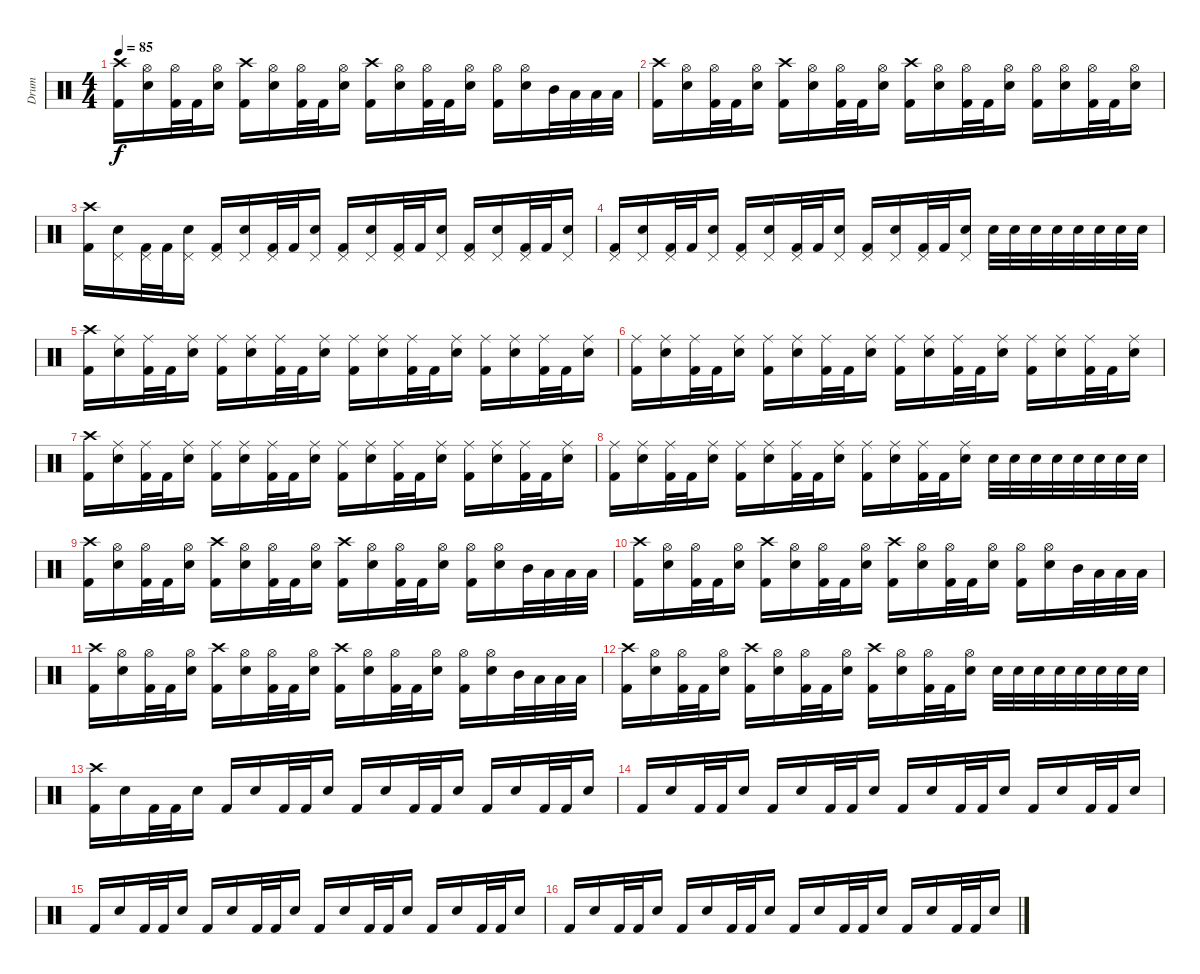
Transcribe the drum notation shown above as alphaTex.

\track ("Drum" "Drum") {instrument percussion}
\staff {score}
\articulation defaults
\ts (4 4)
\tempo 85
\clef neutral
\ks c
("Crash high (hit)" "Kick (hit) 2").16{dy f} ("Hi-Hat (open)" "Electric Snare (hit)").16 ("Hi-Hat (open)" "Kick (hit) 2").32 "Kick (hit) 2".32 ("Hi-Hat (open)" "Electric Snare (hit)").16 ("Crash high (hit)" "Kick (hit) 2").16 ("Hi-Hat (open)" "Electric Snare (hit)").16 ("Hi-Hat (open)" "Kick (hit) 2").32 "Kick (hit) 2".32 ("Hi-Hat (open)" "Electric Snare (hit)").16 ("Crash high (hit)" "Kick (hit) 2").16 ("Hi-Hat (open)" "Electric Snare (hit)").16 ("Hi-Hat (open)" "Kick (hit) 2").32 "Kick (hit) 2".32 ("Hi-Hat (open)" "Electric Snare (hit)").16 ("Hi-Hat (open)" "Kick (hit) 2").16 ("Hi-Hat (open)" "Electric Snare (hit)").16 "Mid Tom (hit)".32 "Low Tom (hit)".32 "Low Tom (hit)".32 "Low Floor Tom (hit)".32 |
("Crash high (hit)" "Kick (hit) 2").16 ("Hi-Hat (open)" "Electric Snare (hit)").16 ("Hi-Hat (open)" "Kick (hit) 2").32 "Kick (hit) 2".32 ("Hi-Hat (open)" "Electric Snare (hit)").16 ("Crash high (hit)" "Kick (hit) 2").16 ("Hi-Hat (open)" "Electric Snare (hit)").16 ("Hi-Hat (open)" "Kick (hit) 2").32 "Kick (hit) 2".32 ("Hi-Hat (open)" "Electric Snare (hit)").16 ("Crash high (hit)" "Kick (hit) 2").16 ("Hi-Hat (open)" "Electric Snare (hit)").16 ("Hi-Hat (open)" "Kick (hit) 2").32 "Kick (hit) 2".32 ("Hi-Hat (open)" "Electric Snare (hit)").16 ("Hi-Hat (open)" "Kick (hit) 2").16 ("Hi-Hat (open)" "Electric Snare (hit)").16 ("Hi-Hat (open)" "Kick (hit) 2").32 "Kick (hit) 2".32 ("Hi-Hat (open)" "Electric Snare (hit)").16 |
("Crash high (hit)" "Kick (hit) 2").16 ("Pedal Hi-Hat (hit)" "Electric Snare (hit)").16 ("Pedal Hi-Hat (hit)" "Kick (hit) 2").32 "Kick (hit) 2".32 ("Pedal Hi-Hat (hit)" "Electric Snare (hit)").16 ("Pedal Hi-Hat (hit)" "Kick (hit) 2").16 ("Pedal Hi-Hat (hit)" "Electric Snare (hit)").16 ("Pedal Hi-Hat (hit)" "Kick (hit) 2").32 "Kick (hit) 2".32 ("Pedal Hi-Hat (hit)" "Electric Snare (hit)").16 ("Pedal Hi-Hat (hit)" "Kick (hit) 2").16 ("Pedal Hi-Hat (hit)" "Electric Snare (hit)").16 ("Pedal Hi-Hat (hit)" "Kick (hit) 2").32 "Kick (hit) 2".32 ("Pedal Hi-Hat (hit)" "Electric Snare (hit)").16 ("Pedal Hi-Hat (hit)" "Kick (hit) 2").16 ("Pedal Hi-Hat (hit)" "Electric Snare (hit)").16 ("Pedal Hi-Hat (hit)" "Kick (hit) 2").32 "Kick (hit) 2".32 ("Pedal Hi-Hat (hit)" "Electric Snare (hit)").16 |
("Pedal Hi-Hat (hit)" "Kick (hit) 2").16 ("Pedal Hi-Hat (hit)" "Electric Snare (hit)").16 ("Pedal Hi-Hat (hit)" "Kick (hit) 2").32 "Kick (hit) 2".32 ("Pedal Hi-Hat (hit)" "Electric Snare (hit)").16 ("Pedal Hi-Hat (hit)" "Kick (hit) 2").16 ("Pedal Hi-Hat (hit)" "Electric Snare (hit)").16 ("Pedal Hi-Hat (hit)" "Kick (hit) 2").32 "Kick (hit) 2".32 ("Pedal Hi-Hat (hit)" "Electric Snare (hit)").16 ("Pedal Hi-Hat (hit)" "Kick (hit) 2").16 ("Pedal Hi-Hat (hit)" "Electric Snare (hit)").16 ("Pedal Hi-Hat (hit)" "Kick (hit) 2").32 "Kick (hit) 2".32 ("Pedal Hi-Hat (hit)" "Electric Snare (hit)").16 "Electric Snare (hit)".32 "Electric Snare (hit)".32 "Electric Snare (hit)".32 "Electric Snare (hit)".32 "Electric Snare (hit)".32 "Electric Snare (hit)".32 "Electric Snare (hit)".32 "Electric Snare (hit)".32 |
("Crash high (hit)" "Kick (hit) 2").16 ("Ride (middle)" "Electric Snare (hit)").16 ("Ride (middle)" "Kick (hit) 2").32 "Kick (hit) 2".32 ("Ride (middle)" "Electric Snare (hit)").16 ("Ride (middle)" "Kick (hit) 2").16 ("Ride (middle)" "Electric Snare (hit)").16 ("Ride (middle)" "Kick (hit) 2").32 "Kick (hit) 2".32 ("Ride (middle)" "Electric Snare (hit)").16 ("Ride (middle)" "Kick (hit) 2").16 ("Ride (middle)" "Electric Snare (hit)").16 ("Ride (middle)" "Kick (hit) 2").32 "Kick (hit) 2".32 ("Ride (middle)" "Electric Snare (hit)").16 ("Ride (middle)" "Kick (hit) 2").16 ("Ride (middle)" "Electric Snare (hit)").16 ("Ride (middle)" "Kick (hit) 2").32 "Kick (hit) 2".32 ("Ride (middle)" "Electric Snare (hit)").16 |
("Ride (middle)" "Kick (hit) 2").16 ("Ride (middle)" "Electric Snare (hit)").16 ("Ride (middle)" "Kick (hit) 2").32 "Kick (hit) 2".32 ("Ride (middle)" "Electric Snare (hit)").16 ("Ride (middle)" "Kick (hit) 2").16 ("Ride (middle)" "Electric Snare (hit)").16 ("Ride (middle)" "Kick (hit) 2").32 "Kick (hit) 2".32 ("Ride (middle)" "Electric Snare (hit)").16 ("Ride (middle)" "Kick (hit) 2").16 ("Ride (middle)" "Electric Snare (hit)").16 ("Ride (middle)" "Kick (hit) 2").32 "Kick (hit) 2".32 ("Ride (middle)" "Electric Snare (hit)").16 ("Ride (middle)" "Kick (hit) 2").16 ("Ride (middle)" "Electric Snare (hit)").16 ("Ride (middle)" "Kick (hit) 2").32 "Kick (hit) 2".32 ("Ride (middle)" "Electric Snare (hit)").16 |
("Crash high (hit)" "Kick (hit) 2").16 ("Ride (middle)" "Electric Snare (hit)").16 ("Ride (middle)" "Kick (hit) 2").32 "Kick (hit) 2".32 ("Ride (middle)" "Electric Snare (hit)").16 ("Ride (middle)" "Kick (hit) 2").16 ("Ride (middle)" "Electric Snare (hit)").16 ("Ride (middle)" "Kick (hit) 2").32 "Kick (hit) 2".32 ("Ride (middle)" "Electric Snare (hit)").16 ("Ride (middle)" "Kick (hit) 2").16 ("Ride (middle)" "Electric Snare (hit)").16 ("Ride (middle)" "Kick (hit) 2").32 "Kick (hit) 2".32 ("Ride (middle)" "Electric Snare (hit)").16 ("Ride (middle)" "Kick (hit) 2").16 ("Ride (middle)" "Electric Snare (hit)").16 ("Ride (middle)" "Kick (hit) 2").32 "Kick (hit) 2".32 ("Ride (middle)" "Electric Snare (hit)").16 |
("Ride (middle)" "Kick (hit) 2").16 ("Ride (middle)" "Electric Snare (hit)").16 ("Ride (middle)" "Kick (hit) 2").32 "Kick (hit) 2".32 ("Ride (middle)" "Electric Snare (hit)").16 ("Ride (middle)" "Kick (hit) 2").16 ("Ride (middle)" "Electric Snare (hit)").16 ("Ride (middle)" "Kick (hit) 2").32 "Kick (hit) 2".32 ("Ride (middle)" "Electric Snare (hit)").16 ("Ride (middle)" "Kick (hit) 2").16 ("Ride (middle)" "Electric Snare (hit)").16 ("Ride (middle)" "Kick (hit) 2").32 "Kick (hit) 2".32 ("Ride (middle)" "Electric Snare (hit)").16 "Electric Snare (hit)".32 "Electric Snare (hit)".32 "Electric Snare (hit)".32 "Electric Snare (hit)".32 "Electric Snare (hit)".32 "Electric Snare (hit)".32 "Electric Snare (hit)".32 "Electric Snare (hit)".32 |
("Crash high (hit)" "Kick (hit) 2").16 ("Hi-Hat (open)" "Electric Snare (hit)").16 ("Hi-Hat (open)" "Kick (hit) 2").32 "Kick (hit) 2".32 ("Hi-Hat (open)" "Electric Snare (hit)").16 ("Crash high (hit)" "Kick (hit) 2").16 ("Hi-Hat (open)" "Electric Snare (hit)").16 ("Hi-Hat (open)" "Kick (hit) 2").32 "Kick (hit) 2".32 ("Hi-Hat (open)" "Electric Snare (hit)").16 ("Crash high (hit)" "Kick (hit) 2").16 ("Hi-Hat (open)" "Electric Snare (hit)").16 ("Hi-Hat (open)" "Kick (hit) 2").32 "Kick (hit) 2".32 ("Hi-Hat (open)" "Electric Snare (hit)").16 ("Hi-Hat (open)" "Kick (hit) 2").16 ("Hi-Hat (open)" "Electric Snare (hit)").16 "Mid Tom (hit)".32 "Low Tom (hit)".32 "Low Tom (hit)".32 "Low Floor Tom (hit)".32 |
("Crash high (hit)" "Kick (hit) 2").16 ("Hi-Hat (open)" "Electric Snare (hit)").16 ("Hi-Hat (open)" "Kick (hit) 2").32 "Kick (hit) 2".32 ("Hi-Hat (open)" "Electric Snare (hit)").16 ("Crash high (hit)" "Kick (hit) 2").16 ("Hi-Hat (open)" "Electric Snare (hit)").16 ("Hi-Hat (open)" "Kick (hit) 2").32 "Kick (hit) 2".32 ("Hi-Hat (open)" "Electric Snare (hit)").16 ("Crash high (hit)" "Kick (hit) 2").16 ("Hi-Hat (open)" "Electric Snare (hit)").16 ("Hi-Hat (open)" "Kick (hit) 2").32 "Kick (hit) 2".32 ("Hi-Hat (open)" "Electric Snare (hit)").16 ("Hi-Hat (open)" "Kick (hit) 2").16 ("Hi-Hat (open)" "Electric Snare (hit)").16 "Mid Tom (hit)".32 "Low Tom (hit)".32 "Low Tom (hit)".32 "Low Floor Tom (hit)".32 |
("Crash high (hit)" "Kick (hit) 2").16 ("Hi-Hat (open)" "Electric Snare (hit)").16 ("Hi-Hat (open)" "Kick (hit) 2").32 "Kick (hit) 2".32 ("Hi-Hat (open)" "Electric Snare (hit)").16 ("Crash high (hit)" "Kick (hit) 2").16 ("Hi-Hat (open)" "Electric Snare (hit)").16 ("Hi-Hat (open)" "Kick (hit) 2").32 "Kick (hit) 2".32 ("Hi-Hat (open)" "Electric Snare (hit)").16 ("Crash high (hit)" "Kick (hit) 2").16 ("Hi-Hat (open)" "Electric Snare (hit)").16 ("Hi-Hat (open)" "Kick (hit) 2").32 "Kick (hit) 2".32 ("Hi-Hat (open)" "Electric Snare (hit)").16 ("Hi-Hat (open)" "Kick (hit) 2").16 ("Hi-Hat (open)" "Electric Snare (hit)").16 "Mid Tom (hit)".32 "Low Tom (hit)".32 "Low Tom (hit)".32 "Low Floor Tom (hit)".32 |
("Crash high (hit)" "Kick (hit) 2").16 ("Hi-Hat (open)" "Electric Snare (hit)").16 ("Hi-Hat (open)" "Kick (hit) 2").32 "Kick (hit) 2".32 ("Hi-Hat (open)" "Electric Snare (hit)").16 ("Crash high (hit)" "Kick (hit) 2").16 ("Hi-Hat (open)" "Electric Snare (hit)").16 ("Hi-Hat (open)" "Kick (hit) 2").32 "Kick (hit) 2".32 ("Hi-Hat (open)" "Electric Snare (hit)").16 ("Crash high (hit)" "Kick (hit) 2").16 ("Hi-Hat (open)" "Electric Snare (hit)").16 ("Hi-Hat (open)" "Kick (hit) 2").32 "Kick (hit) 2".32 ("Hi-Hat (open)" "Electric Snare (hit)").16 "Electric Snare (hit)".32 "Electric Snare (hit)".32 "Electric Snare (hit)".32 "Electric Snare (hit)".32 "Electric Snare (hit)".32 "Electric Snare (hit)".32 "Electric Snare (hit)".32 "Electric Snare (hit)".32 |
("Crash high (hit)" "Kick (hit) 2").16 "Electric Snare (hit)".16 "Kick (hit) 2".32 "Kick (hit) 2".32 "Electric Snare (hit)".16 "Kick (hit) 2".16 "Electric Snare (hit)".16 "Kick (hit) 2".32 "Kick (hit) 2".32 "Electric Snare (hit)".16 "Kick (hit) 2".16 "Electric Snare (hit)".16 "Kick (hit) 2".32 "Kick (hit) 2".32 "Electric Snare (hit)".16 "Kick (hit) 2".16 "Electric Snare (hit)".16 "Kick (hit) 2".32 "Kick (hit) 2".32 "Electric Snare (hit)".16 |
"Kick (hit) 2".16 "Electric Snare (hit)".16 "Kick (hit) 2".32 "Kick (hit) 2".32 "Electric Snare (hit)".16 "Kick (hit) 2".16 "Electric Snare (hit)".16 "Kick (hit) 2".32 "Kick (hit) 2".32 "Electric Snare (hit)".16 "Kick (hit) 2".16 "Electric Snare (hit)".16 "Kick (hit) 2".32 "Kick (hit) 2".32 "Electric Snare (hit)".16 "Kick (hit) 2".16 "Electric Snare (hit)".16 "Kick (hit) 2".32 "Kick (hit) 2".32 "Electric Snare (hit)".16 |
"Kick (hit) 2".16 "Electric Snare (hit)".16 "Kick (hit) 2".32 "Kick (hit) 2".32 "Electric Snare (hit)".16 "Kick (hit) 2".16 "Electric Snare (hit)".16 "Kick (hit) 2".32 "Kick (hit) 2".32 "Electric Snare (hit)".16 "Kick (hit) 2".16 "Electric Snare (hit)".16 "Kick (hit) 2".32 "Kick (hit) 2".32 "Electric Snare (hit)".16 "Kick (hit) 2".16 "Electric Snare (hit)".16 "Kick (hit) 2".32 "Kick (hit) 2".32 "Electric Snare (hit)".16 |
"Kick (hit) 2".16 "Electric Snare (hit)".16 "Kick (hit) 2".32 "Kick (hit) 2".32 "Electric Snare (hit)".16 "Kick (hit) 2".16 "Electric Snare (hit)".16 "Kick (hit) 2".32 "Kick (hit) 2".32 "Electric Snare (hit)".16 "Kick (hit) 2".16 "Electric Snare (hit)".16 "Kick (hit) 2".32 "Kick (hit) 2".32 "Electric Snare (hit)".16 "Kick (hit) 2".16 "Electric Snare (hit)".16 "Kick (hit) 2".32 "Kick (hit) 2".32 "Electric Snare (hit)".16
